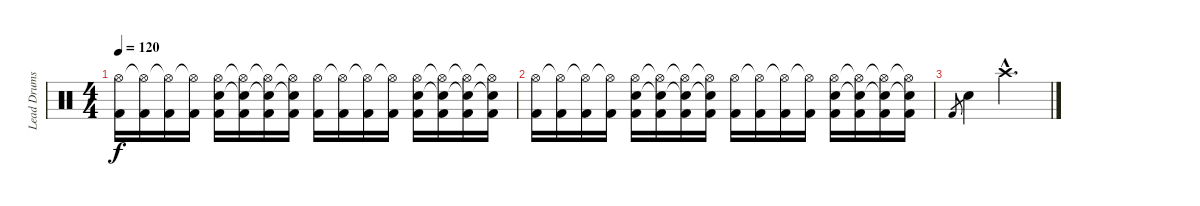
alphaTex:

\track ("Lead Drums" "Lead Drums") {instrument percussion}
\staff {score}
\articulation defaults
\ts (4 4)
\tempo 120
\clef neutral
\ks c
("Hi-Hat (open)" "Kick (hit) 2").16{dy f} ("Hi-Hat (open)"{t} "Kick (hit) 2").16 ("Hi-Hat (open)"{t} "Kick (hit) 2").16 ("Hi-Hat (open)"{t} "Kick (hit) 2").16 ("Hi-Hat (open)" "Snare (hit) 2" "Kick (hit) 2").16 ("Hi-Hat (open)"{t} "Snare (hit)"{t} "Kick (hit) 2").16 ("Hi-Hat (open)"{t} "Snare (hit)"{t} "Kick (hit) 2").16 ("Hi-Hat (open)"{t} "Snare (hit)"{t} "Kick (hit) 2").16 ("Hi-Hat (open)" "Kick (hit) 2").16 ("Hi-Hat (open)"{t} "Kick (hit) 2").16 ("Hi-Hat (open)"{t} "Kick (hit) 2").16 ("Hi-Hat (open)"{t} "Kick (hit) 2").16 ("Hi-Hat (open)" "Snare (hit) 2" "Kick (hit) 2").16 ("Hi-Hat (open)"{t} "Snare (hit)"{t} "Kick (hit) 2").16 ("Hi-Hat (open)"{t} "Snare (hit)"{t} "Kick (hit) 2").16 ("Hi-Hat (open)"{t} "Snare (hit)"{t} "Kick (hit) 2").16 |
("Hi-Hat (open)" "Kick (hit) 2").16 ("Hi-Hat (open)"{t} "Kick (hit) 2").16 ("Hi-Hat (open)"{t} "Kick (hit) 2").16 ("Hi-Hat (open)"{t} "Kick (hit) 2").16 ("Hi-Hat (open)" "Snare (hit) 2" "Kick (hit) 2").16 ("Hi-Hat (open)"{t} "Snare (hit)"{t} "Kick (hit) 2").16 ("Hi-Hat (open)"{t} "Snare (hit)"{t} "Kick (hit) 2").16 ("Hi-Hat (open)"{t} "Snare (hit)"{t} "Kick (hit) 2").16 ("Hi-Hat (open)" "Kick (hit) 2").16 ("Hi-Hat (open)"{t} "Kick (hit) 2").16 ("Hi-Hat (open)"{t} "Kick (hit) 2").16 ("Hi-Hat (open)"{t} "Kick (hit) 2").16 ("Hi-Hat (open)" "Snare (hit) 2" "Kick (hit) 2").16 ("Hi-Hat (open)"{t} "Snare (hit)"{t} "Kick (hit) 2").16 ("Hi-Hat (open)"{t} "Snare (hit)"{t} "Kick (hit) 2").16 ("Hi-Hat (open)"{t} "Snare (hit)"{t} "Kick (hit) 2").16 |
"Kick (hit) 2".8{gr} "Snare (hit) 2".4 "Crash high (hit)"{hac}.2{d}
